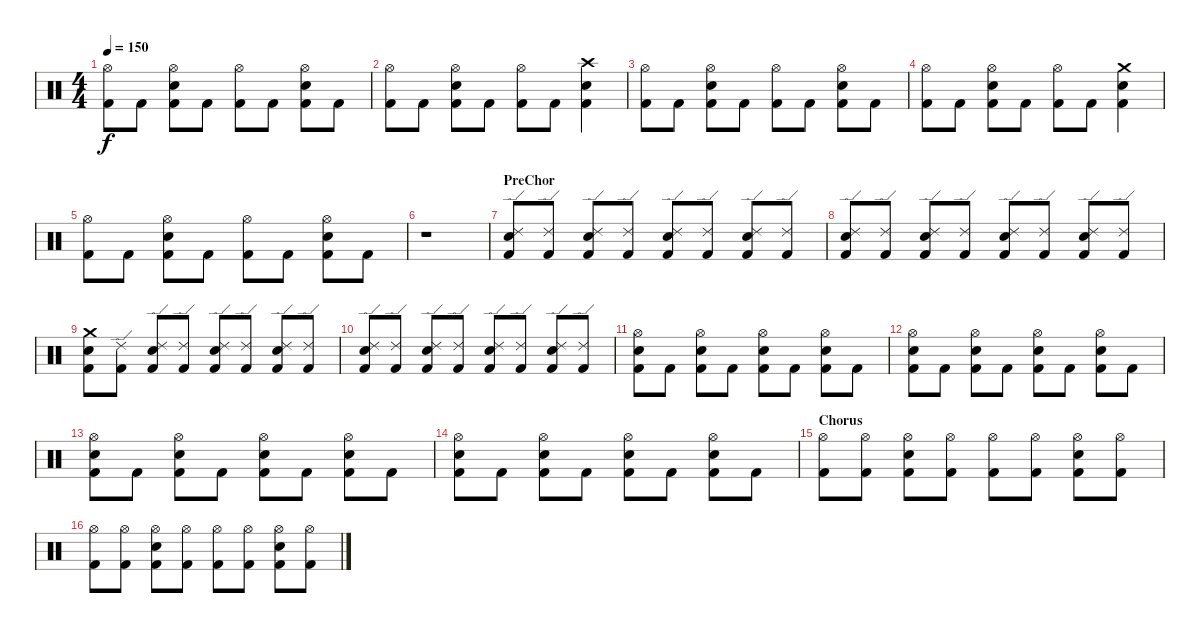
\track "" {instrument percussion}
\staff {score}
\articulation defaults
\ts (4 4)
\tempo 150
\clef neutral
\ks c
("Hi-Hat (open)" "Kick (hit) 2").8{dy f} "Kick (hit) 2".8 ("Hi-Hat (open)" "Electric Snare (hit)" "Kick (hit) 2").8 "Kick (hit) 2".8 ("Hi-Hat (open)" "Kick (hit) 2").8 "Kick (hit) 2".8 ("Hi-Hat (open)" "Electric Snare (hit)" "Kick (hit) 2").8 "Kick (hit) 2".8 |
("Hi-Hat (open)" "Kick (hit) 2").8 "Kick (hit) 2".8 ("Hi-Hat (open)" "Electric Snare (hit)" "Kick (hit) 2").8 "Kick (hit) 2".8 ("Hi-Hat (open)" "Kick (hit) 2").8 "Kick (hit) 2".8 ("Crash high (hit)" "Electric Snare (hit)" "Kick (hit) 2").4 |
("Hi-Hat (open)" "Kick (hit) 2").8 "Kick (hit) 2".8 ("Hi-Hat (open)" "Electric Snare (hit)" "Kick (hit) 2").8 "Kick (hit) 2".8 ("Hi-Hat (open)" "Kick (hit) 2").8 "Kick (hit) 2".8 ("Hi-Hat (open)" "Electric Snare (hit)" "Kick (hit) 2").8 "Kick (hit) 2".8 |
("Hi-Hat (open)" "Kick (hit) 2").8 "Kick (hit) 2".8 ("Hi-Hat (open)" "Electric Snare (hit)" "Kick (hit) 2").8 "Kick (hit) 2".8 ("Hi-Hat (open)" "Kick (hit) 2").8 "Kick (hit) 2".8 ("Crash medium (hit)" "Electric Snare (hit)" "Kick (hit) 2").4 |
("Hi-Hat (open)" "Kick (hit) 2").8 "Kick (hit) 2".8 ("Hi-Hat (open)" "Electric Snare (hit)" "Kick (hit) 2").8 "Kick (hit) 2".8 ("Hi-Hat (open)" "Kick (hit) 2").8 "Kick (hit) 2".8 ("Hi-Hat (open)" "Electric Snare (hit)" "Kick (hit) 2").8 "Kick (hit) 2".8 |
r.1 |
\section ("" "PreChor")
("Ride (edge) 2" "Electric Snare (hit)" "Kick (hit) 2").8 ("Ride (edge) 2" "Kick (hit) 2").8 ("Ride (edge) 2" "Electric Snare (hit)" "Kick (hit) 2").8 ("Ride (edge) 2" "Kick (hit) 2").8 ("Ride (edge) 2" "Electric Snare (hit)" "Kick (hit) 2").8 ("Ride (edge) 2" "Kick (hit) 2").8 ("Ride (edge) 2" "Electric Snare (hit)" "Kick (hit) 2").8 ("Ride (edge) 2" "Kick (hit) 2").8 |
("Ride (edge) 2" "Electric Snare (hit)" "Kick (hit) 2").8 ("Ride (edge) 2" "Kick (hit) 2").8 ("Ride (edge) 2" "Electric Snare (hit)" "Kick (hit) 2").8 ("Ride (edge) 2" "Kick (hit) 2").8 ("Ride (edge) 2" "Electric Snare (hit)" "Kick (hit) 2").8 ("Ride (edge) 2" "Kick (hit) 2").8 ("Ride (edge) 2" "Electric Snare (hit)" "Kick (hit) 2").8 ("Ride (edge) 2" "Kick (hit) 2").8 |
("Crash medium (hit)" "Electric Snare (hit)" "Kick (hit) 2").8 ("Ride (edge) 2" "Kick (hit) 2").8 ("Ride (edge) 2" "Electric Snare (hit)" "Kick (hit) 2").8 ("Ride (edge) 2" "Kick (hit) 2").8 ("Ride (edge) 2" "Electric Snare (hit)" "Kick (hit) 2").8 ("Ride (edge) 2" "Kick (hit) 2").8 ("Ride (edge) 2" "Electric Snare (hit)" "Kick (hit) 2").8 ("Ride (edge) 2" "Kick (hit) 2").8 |
("Ride (edge) 2" "Electric Snare (hit)" "Kick (hit) 2").8 ("Ride (edge) 2" "Kick (hit) 2").8 ("Ride (edge) 2" "Electric Snare (hit)" "Kick (hit) 2").8 ("Ride (edge) 2" "Kick (hit) 2").8 ("Ride (edge) 2" "Electric Snare (hit)" "Kick (hit) 2").8 ("Ride (edge) 2" "Kick (hit) 2").8 ("Ride (edge) 2" "Electric Snare (hit)" "Kick (hit) 2").8 ("Ride (edge) 2" "Kick (hit) 2").8 |
("Hi-Hat (open)" "Electric Snare (hit)" "Kick (hit) 2").8 "Kick (hit) 2".8 ("Hi-Hat (open)" "Electric Snare (hit)" "Kick (hit) 2").8 "Kick (hit) 2".8 ("Hi-Hat (open)" "Electric Snare (hit)" "Kick (hit) 2").8 "Kick (hit) 2".8 ("Hi-Hat (open)" "Electric Snare (hit)" "Kick (hit) 2").8 "Kick (hit) 2".8 |
("Hi-Hat (open)" "Electric Snare (hit)" "Kick (hit) 2").8 "Kick (hit) 2".8 ("Hi-Hat (open)" "Electric Snare (hit)" "Kick (hit) 2").8 "Kick (hit) 2".8 ("Hi-Hat (open)" "Electric Snare (hit)" "Kick (hit) 2").8 "Kick (hit) 2".8 ("Hi-Hat (open)" "Electric Snare (hit)" "Kick (hit) 2").8 "Kick (hit) 2".8 |
("Hi-Hat (open)" "Electric Snare (hit)" "Kick (hit) 2").8 "Kick (hit) 2".8 ("Hi-Hat (open)" "Electric Snare (hit)" "Kick (hit) 2").8 "Kick (hit) 2".8 ("Hi-Hat (open)" "Electric Snare (hit)" "Kick (hit) 2").8 "Kick (hit) 2".8 ("Hi-Hat (open)" "Electric Snare (hit)" "Kick (hit) 2").8 "Kick (hit) 2".8 |
("Hi-Hat (open)" "Electric Snare (hit)" "Kick (hit) 2").8 "Kick (hit) 2".8 ("Hi-Hat (open)" "Electric Snare (hit)" "Kick (hit) 2").8 "Kick (hit) 2".8 ("Hi-Hat (open)" "Electric Snare (hit)" "Kick (hit) 2").8 "Kick (hit) 2".8 ("Hi-Hat (open)" "Electric Snare (hit)" "Kick (hit) 2").8 "Kick (hit) 2".8 |
\section ("" "Chorus")
("Hi-Hat (open)" "Kick (hit) 2").8 ("Hi-Hat (open)" "Kick (hit) 2").8 ("Hi-Hat (open)" "Electric Snare (hit)" "Kick (hit) 2").8 ("Hi-Hat (open)" "Kick (hit) 2").8 ("Hi-Hat (open)" "Kick (hit) 2").8 ("Hi-Hat (open)" "Kick (hit) 2").8 ("Hi-Hat (open)" "Electric Snare (hit)" "Kick (hit) 2").8 ("Hi-Hat (open)" "Kick (hit) 2").8 |
("Hi-Hat (open)" "Kick (hit) 2").8 ("Hi-Hat (open)" "Kick (hit) 2").8 ("Hi-Hat (open)" "Electric Snare (hit)" "Kick (hit) 2").8 ("Hi-Hat (open)" "Kick (hit) 2").8 ("Hi-Hat (open)" "Kick (hit) 2").8 ("Hi-Hat (open)" "Kick (hit) 2").8 ("Hi-Hat (open)" "Electric Snare (hit)" "Kick (hit) 2").8 ("Hi-Hat (open)" "Kick (hit) 2").8
